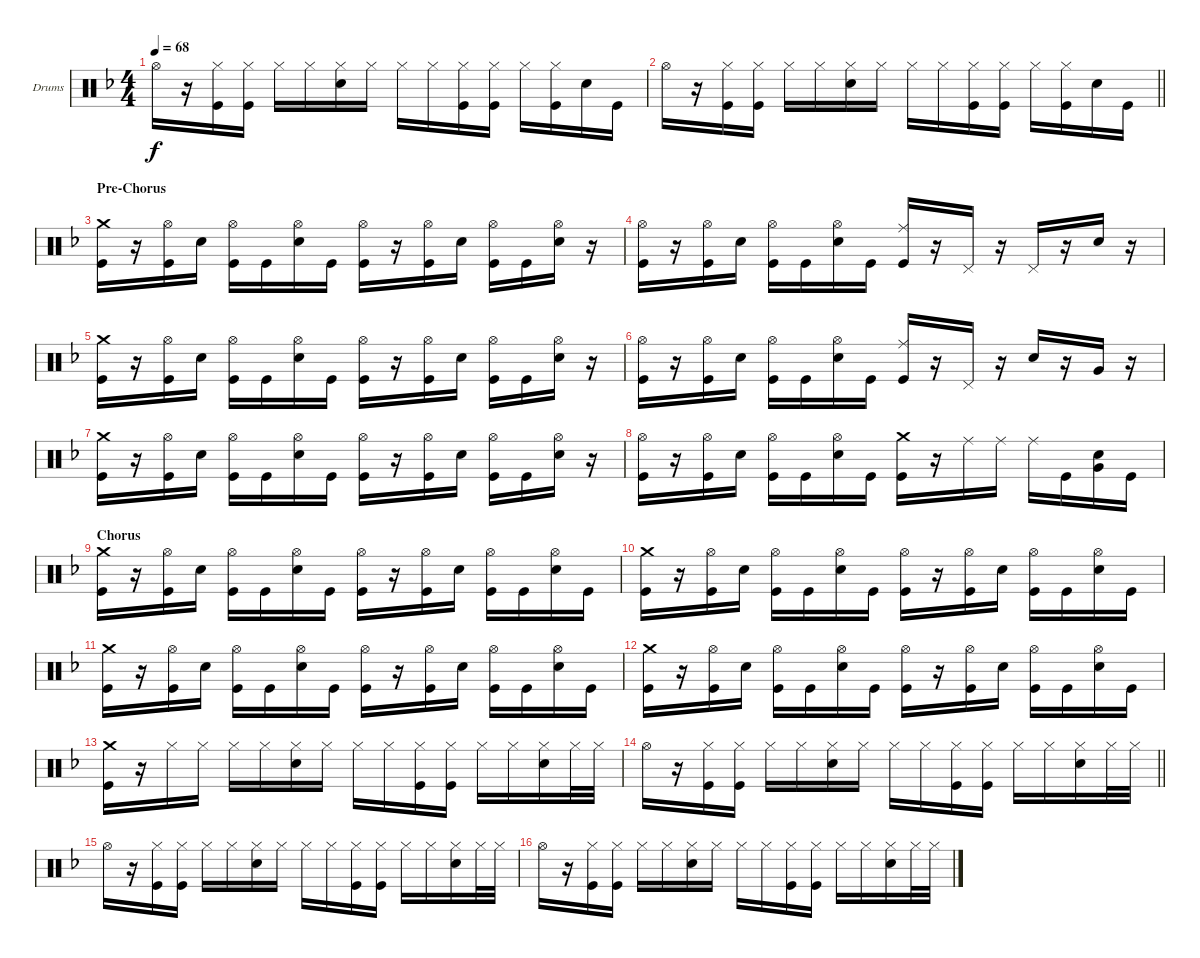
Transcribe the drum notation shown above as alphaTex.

\defaultSystemsLayout 4
\bracketExtendMode groupsimilarinstruments
\firstSystemTrackNameOrientation horizontal
\otherSystemsTrackNameOrientation horizontal
\track ("Drumkit" "Drums") {instrument percussion}
\staff {score}
\articulation defaults
\ts (4 4)
\tempo 68
\clef neutral
\ks f "Hi-Hat (open)".16{dy f}
r.16 ("Hi-Hat (closed)" "Kick (hit)").16 ("Hi-Hat (closed)" "Kick (hit)").16 "Hi-Hat (closed)".16 "Hi-Hat (closed)".16 ("Hi-Hat (closed)" "Snare (hit) 2").16 "Hi-Hat (closed)".16 "Hi-Hat (closed)".16 "Hi-Hat (closed)".16 ("Hi-Hat (closed)" "Kick (hit)").16 ("Hi-Hat (closed)" "Kick (hit)").16 "Hi-Hat (closed)".16 ("Hi-Hat (closed)" "Kick (hit)").16 "Snare (hit) 2".16 "Kick (hit)".16 |
\barLineRight lightlight "Hi-Hat (open)".16
r.16 ("Hi-Hat (closed)" "Kick (hit)").16 ("Hi-Hat (closed)" "Kick (hit)").16 "Hi-Hat (closed)".16 "Hi-Hat (closed)".16 ("Hi-Hat (closed)" "Snare (hit) 2").16 "Hi-Hat (closed)".16 "Hi-Hat (closed)".16 "Hi-Hat (closed)".16 ("Hi-Hat (closed)" "Kick (hit)").16 ("Hi-Hat (closed)" "Kick (hit)").16 "Hi-Hat (closed)".16 ("Hi-Hat (closed)" "Kick (hit)").16 "Snare (hit) 2".16 "Kick (hit)".16 |
\section ("" "Pre-Chorus")
("Crash medium (hit)" "Kick (hit)").16 r.16 ("Hi-Hat (open)" "Kick (hit)").16 "Snare (hit) 2".16 ("Hi-Hat (open)" "Kick (hit)").16 "Kick (hit)".16 ("Hi-Hat (open)" "Snare (hit) 2").16 "Kick (hit)".16 ("Hi-Hat (open)" "Kick (hit)").16 r.16 ("Hi-Hat (open)" "Kick (hit)").16 "Snare (hit) 2".16 ("Hi-Hat (open)" "Kick (hit)").16 "Kick (hit)".16 ("Hi-Hat (open)" "Snare (hit) 2").16 r.16 |
("Hi-Hat (open)" "Kick (hit)").16 r.16 ("Hi-Hat (open)" "Kick (hit)").16 "Snare (hit) 2".16 ("Hi-Hat (open)" "Kick (hit)").16 "Kick (hit)".16 ("Hi-Hat (open)" "Snare (hit) 2").16 "Kick (hit)".16 ("Ride (middle)" "Kick (hit)").16 r.16 "Pedal Hi-Hat (hit)".16 r.16 "Pedal Hi-Hat (hit)".16 r.16 "Snare (hit) 2".16 r.16 |
("Crash medium (hit)" "Kick (hit)").16 r.16 ("Hi-Hat (open)" "Kick (hit)").16 "Snare (hit) 2".16 ("Hi-Hat (open)" "Kick (hit)").16 "Kick (hit)".16 ("Hi-Hat (open)" "Snare (hit) 2").16 "Kick (hit)".16 ("Hi-Hat (open)" "Kick (hit)").16 r.16 ("Hi-Hat (open)" "Kick (hit)").16 "Snare (hit) 2".16 ("Hi-Hat (open)" "Kick (hit)").16 "Kick (hit)".16 ("Hi-Hat (open)" "Snare (hit) 2").16 r.16 |
("Hi-Hat (open)" "Kick (hit)").16 r.16 ("Hi-Hat (open)" "Kick (hit)").16 "Snare (hit) 2".16 ("Hi-Hat (open)" "Kick (hit)").16 "Kick (hit)".16 ("Hi-Hat (open)" "Snare (hit) 2").16 "Kick (hit)".16 ("Ride (middle)" "Kick (hit)").16 r.16 "Pedal Hi-Hat (hit)".16 r.16 "Snare (hit) 2".16 r.16 "Very Low Tom (hit)".16 r.16 |
("Crash medium (hit)" "Kick (hit)").16 r.16 ("Hi-Hat (open)" "Kick (hit)").16 "Snare (hit) 2".16 ("Hi-Hat (open)" "Kick (hit)").16 "Kick (hit)".16 ("Hi-Hat (open)" "Snare (hit) 2").16 "Kick (hit)".16 ("Hi-Hat (open)" "Kick (hit)").16 r.16 ("Hi-Hat (open)" "Kick (hit)").16 "Snare (hit) 2".16 ("Hi-Hat (open)" "Kick (hit)").16 "Kick (hit)".16 ("Hi-Hat (open)" "Snare (hit) 2").16 r.16 |
("Hi-Hat (open)" "Kick (hit)").16 r.16 ("Hi-Hat (open)" "Kick (hit)").16 "Snare (hit) 2".16 ("Hi-Hat (open)" "Kick (hit)").16 "Kick (hit)".16 ("Hi-Hat (open)" "Snare (hit) 2").16 "Kick (hit)".16 ("Crash medium (hit)" "Kick (hit)").16 r.16 "Ride (middle)".16 "Ride (middle)".16 "Ride (middle)".16 "Kick (hit)".16 ("Snare (hit) 2" "Very Low Tom (hit)").16 "Kick (hit)".16 |
\section ("" "Chorus")
("Crash medium (hit)" "Kick (hit)").16 r.16 ("Hi-Hat (open)" "Kick (hit)").16 "Snare (hit) 2".16 ("Hi-Hat (open)" "Kick (hit)").16 "Kick (hit)".16 ("Hi-Hat (open)" "Snare (hit) 2").16 "Kick (hit)".16 ("Hi-Hat (open)" "Kick (hit)").16 r.16 ("Hi-Hat (open)" "Kick (hit)").16 "Snare (hit) 2".16 ("Hi-Hat (open)" "Kick (hit)").16 "Kick (hit)".16 ("Hi-Hat (open)" "Snare (hit) 2").16 "Kick (hit)".16 |
("Crash medium (hit)" "Kick (hit)").16 r.16 ("Hi-Hat (open)" "Kick (hit)").16 "Snare (hit) 2".16 ("Hi-Hat (open)" "Kick (hit)").16 "Kick (hit)".16 ("Hi-Hat (open)" "Snare (hit) 2").16 "Kick (hit)".16 ("Hi-Hat (open)" "Kick (hit)").16 r.16 ("Hi-Hat (open)" "Kick (hit)").16 "Snare (hit) 2".16 ("Hi-Hat (open)" "Kick (hit)").16 "Kick (hit)".16 ("Hi-Hat (open)" "Snare (hit) 2").16 "Kick (hit)".16 |
("Crash medium (hit)" "Kick (hit)").16 r.16 ("Hi-Hat (open)" "Kick (hit)").16 "Snare (hit) 2".16 ("Hi-Hat (open)" "Kick (hit)").16 "Kick (hit)".16 ("Hi-Hat (open)" "Snare (hit) 2").16 "Kick (hit)".16 ("Hi-Hat (open)" "Kick (hit)").16 r.16 ("Hi-Hat (open)" "Kick (hit)").16 "Snare (hit) 2".16 ("Hi-Hat (open)" "Kick (hit)").16 "Kick (hit)".16 ("Hi-Hat (open)" "Snare (hit) 2").16 "Kick (hit)".16 |
("Crash medium (hit)" "Kick (hit)").16 r.16 ("Hi-Hat (open)" "Kick (hit)").16 "Snare (hit) 2".16 ("Hi-Hat (open)" "Kick (hit)").16 "Kick (hit)".16 ("Hi-Hat (open)" "Snare (hit) 2").16 "Kick (hit)".16 ("Hi-Hat (open)" "Kick (hit)").16 r.16 ("Hi-Hat (open)" "Kick (hit)").16 "Snare (hit) 2".16 ("Hi-Hat (open)" "Kick (hit)").16 "Kick (hit)".16 ("Hi-Hat (open)" "Snare (hit) 2").16 "Kick (hit)".16 |
("Crash medium (hit)" "Kick (hit)").16 r.16 "Hi-Hat (closed)".16 "Hi-Hat (closed)".16 "Hi-Hat (closed)".16 "Hi-Hat (closed)".16 ("Hi-Hat (closed)" "Snare (hit) 2").16 "Hi-Hat (closed)".16 "Hi-Hat (closed)".16 "Hi-Hat (closed)".16 ("Hi-Hat (closed)" "Kick (hit)").16 ("Hi-Hat (closed)" "Kick (hit)").16 "Hi-Hat (closed)".16 "Hi-Hat (closed)".16 ("Hi-Hat (closed)" "Snare (hit) 2").16 "Hi-Hat (closed)".32 "Hi-Hat (closed)".32 |
\barLineRight lightlight "Hi-Hat (open)".16
r.16 ("Hi-Hat (closed)" "Kick (hit)").16 ("Hi-Hat (closed)" "Kick (hit)").16 "Hi-Hat (closed)".16 "Hi-Hat (closed)".16 ("Hi-Hat (closed)" "Snare (hit) 2").16 "Hi-Hat (closed)".16 "Hi-Hat (closed)".16 "Hi-Hat (closed)".16 ("Hi-Hat (closed)" "Kick (hit)").16 ("Hi-Hat (closed)" "Kick (hit)").16 "Hi-Hat (closed)".16 "Hi-Hat (closed)".16 ("Hi-Hat (closed)" "Snare (hit) 2").16 "Hi-Hat (closed)".32 "Hi-Hat (closed)".32 |
"Hi-Hat (open)".16 r.16 ("Hi-Hat (closed)" "Kick (hit)").16 ("Hi-Hat (closed)" "Kick (hit)").16 "Hi-Hat (closed)".16 "Hi-Hat (closed)".16 ("Hi-Hat (closed)" "Snare (hit) 2").16 "Hi-Hat (closed)".16 "Hi-Hat (closed)".16 "Hi-Hat (closed)".16 ("Hi-Hat (closed)" "Kick (hit)").16 ("Hi-Hat (closed)" "Kick (hit)").16 "Hi-Hat (closed)".16 "Hi-Hat (closed)".16 ("Hi-Hat (closed)" "Snare (hit) 2").16 "Hi-Hat (closed)".32 "Hi-Hat (closed)".32 |
"Hi-Hat (open)".16 r.16 ("Hi-Hat (closed)" "Kick (hit)").16 ("Hi-Hat (closed)" "Kick (hit)").16 "Hi-Hat (closed)".16 "Hi-Hat (closed)".16 ("Hi-Hat (closed)" "Snare (hit) 2").16 "Hi-Hat (closed)".16 "Hi-Hat (closed)".16 "Hi-Hat (closed)".16 ("Hi-Hat (closed)" "Kick (hit)").16 ("Hi-Hat (closed)" "Kick (hit)").16 "Hi-Hat (closed)".16 "Hi-Hat (closed)".16 ("Hi-Hat (closed)" "Snare (hit) 2").16 "Hi-Hat (closed)".32 "Hi-Hat (closed)".32
